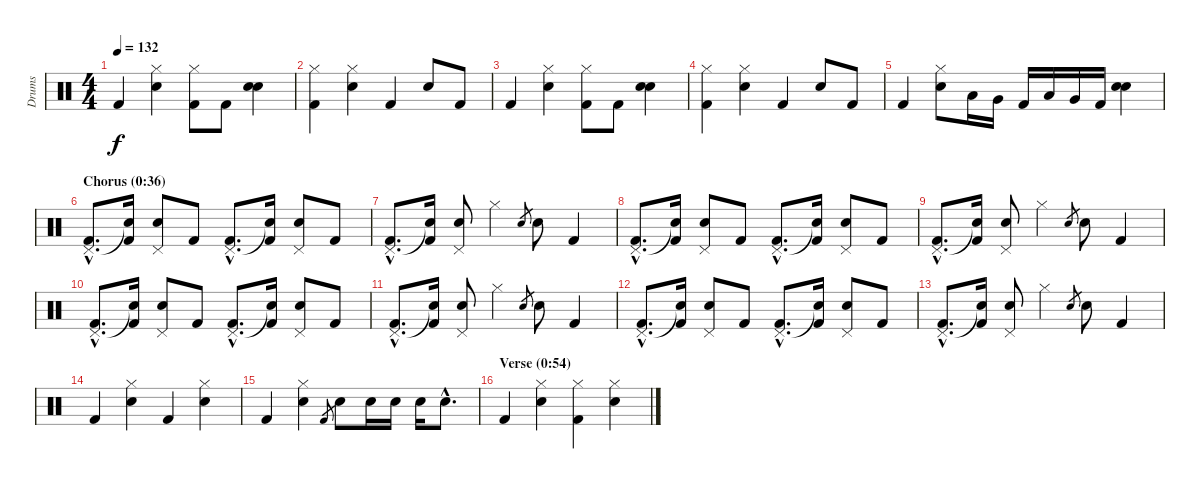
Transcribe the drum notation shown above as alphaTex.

\track ("Drums" "Drums") {instrument percussion}
\staff {score}
\articulation defaults
\ts (4 4)
\tempo 132
\clef neutral
\ks aminor "Kick (hit) 2".4{dy f}
("Electric Snare (hit)" "Hi-Hat (closed)").4 ("Kick (hit) 2" "Hi-Hat (closed)").8 "Kick (hit) 2".8 ("Electric Snare (hit)" "Electric Snare (hit)").4 |
("Kick (hit) 2" "Hi-Hat (closed)").4 ("Electric Snare (hit)" "Hi-Hat (closed)").4 "Kick (hit) 2".4 "Electric Snare (hit)".8 "Kick (hit) 2".8 |
"Kick (hit) 2".4 ("Electric Snare (hit)" "Hi-Hat (closed)").4 ("Kick (hit) 2" "Hi-Hat (closed)").8 "Kick (hit) 2".8 ("Electric Snare (hit)" "Electric Snare (hit)").4 |
("Kick (hit) 2" "Hi-Hat (closed)").4 ("Electric Snare (hit)" "Hi-Hat (closed)").4 "Kick (hit) 2".4 "Electric Snare (hit)".8 "Kick (hit) 2".8 |
"Kick (hit) 2".4 ("Electric Snare (hit)" "Hi-Hat (closed)").8 "Low Tom (hit)".16 "Very Low Tom (hit)".16 "Kick (hit) 2".16 "Low Tom (hit)".16 "Very Low Tom (hit)".16 "Kick (hit) 2".16 ("Electric Snare (hit)" "Electric Snare (hit)").4 |
\section ("" "Chorus (0:36)")
("Kick (hit) 2"{hac} "Pedal Hi-Hat (hit)"{hac}).8{d} ("Kick (hit) 2" "Snare (hit)"{t}).16 ("Electric Snare (hit)" "Pedal Hi-Hat (hit)").8 "Kick (hit) 2".8 ("Kick (hit) 2"{hac} "Pedal Hi-Hat (hit)"{hac}).8{d} ("Kick (hit) 2" "Snare (hit)"{t}).16 ("Electric Snare (hit)" "Pedal Hi-Hat (hit)").8 "Kick (hit) 2".8 |
("Kick (hit) 2"{hac} "Pedal Hi-Hat (hit)"{hac}).8{d} ("Kick (hit) 2" "Snare (hit)"{t}).16 ("Electric Snare (hit)" "Pedal Hi-Hat (hit)").8 "Hi-Hat (closed)".4 "Electric Snare (hit)".8{gr} "Electric Snare (hit)".8 "Kick (hit) 2".4 |
("Kick (hit) 2"{hac} "Pedal Hi-Hat (hit)"{hac}).8{d} ("Kick (hit) 2" "Snare (hit)"{t}).16 ("Electric Snare (hit)" "Pedal Hi-Hat (hit)").8 "Kick (hit) 2".8 ("Kick (hit) 2"{hac} "Pedal Hi-Hat (hit)"{hac}).8{d} ("Kick (hit) 2" "Snare (hit)"{t}).16 ("Electric Snare (hit)" "Pedal Hi-Hat (hit)").8 "Kick (hit) 2".8 |
("Kick (hit) 2"{hac} "Pedal Hi-Hat (hit)"{hac}).8{d} ("Kick (hit) 2" "Snare (hit)"{t}).16 ("Electric Snare (hit)" "Pedal Hi-Hat (hit)").8 "Hi-Hat (closed)".4 "Electric Snare (hit)".8{gr} "Electric Snare (hit)".8 "Kick (hit) 2".4 |
("Kick (hit) 2"{hac} "Pedal Hi-Hat (hit)"{hac}).8{d} ("Kick (hit) 2" "Snare (hit)"{t}).16 ("Electric Snare (hit)" "Pedal Hi-Hat (hit)").8 "Kick (hit) 2".8 ("Kick (hit) 2"{hac} "Pedal Hi-Hat (hit)"{hac}).8{d} ("Kick (hit) 2" "Snare (hit)"{t}).16 ("Electric Snare (hit)" "Pedal Hi-Hat (hit)").8 "Kick (hit) 2".8 |
("Kick (hit) 2"{hac} "Pedal Hi-Hat (hit)"{hac}).8{d} ("Kick (hit) 2" "Snare (hit)"{t}).16 ("Electric Snare (hit)" "Pedal Hi-Hat (hit)").8 "Hi-Hat (closed)".4 "Electric Snare (hit)".8{gr} "Electric Snare (hit)".8 "Kick (hit) 2".4 |
("Kick (hit) 2"{hac} "Pedal Hi-Hat (hit)"{hac}).8{d} ("Kick (hit) 2" "Snare (hit)"{t}).16 ("Electric Snare (hit)" "Pedal Hi-Hat (hit)").8 "Kick (hit) 2".8 ("Kick (hit) 2"{hac} "Pedal Hi-Hat (hit)"{hac}).8{d} ("Kick (hit) 2" "Snare (hit)"{t}).16 ("Electric Snare (hit)" "Pedal Hi-Hat (hit)").8 "Kick (hit) 2".8 |
("Kick (hit) 2"{hac} "Pedal Hi-Hat (hit)"{hac}).8{d} ("Kick (hit) 2" "Snare (hit)"{t}).16 ("Electric Snare (hit)" "Pedal Hi-Hat (hit)").8 "Hi-Hat (closed)".4 "Electric Snare (hit)".8{gr} "Electric Snare (hit)".8 "Kick (hit) 2".4 |
"Kick (hit) 2".4 ("Electric Snare (hit)" "Hi-Hat (closed)").4 "Kick (hit) 2".4 ("Electric Snare (hit)" "Hi-Hat (closed)").4 |
"Kick (hit) 2".4 ("Electric Snare (hit)" "Hi-Hat (closed)").4 "Kick (hit) 2".8{gr} "Electric Snare (hit)".8 "Electric Snare (hit)".16 "Electric Snare (hit)".16 "Electric Snare (hit)".16 "Electric Snare (hit)"{hac}.8{d} |
\section ("" "Verse (0:54)")
"Kick (hit) 2".4 ("Electric Snare (hit)" "Hi-Hat (closed)").4 ("Kick (hit) 2" "Hi-Hat (closed)").4 ("Electric Snare (hit)" "Hi-Hat (closed)").4
